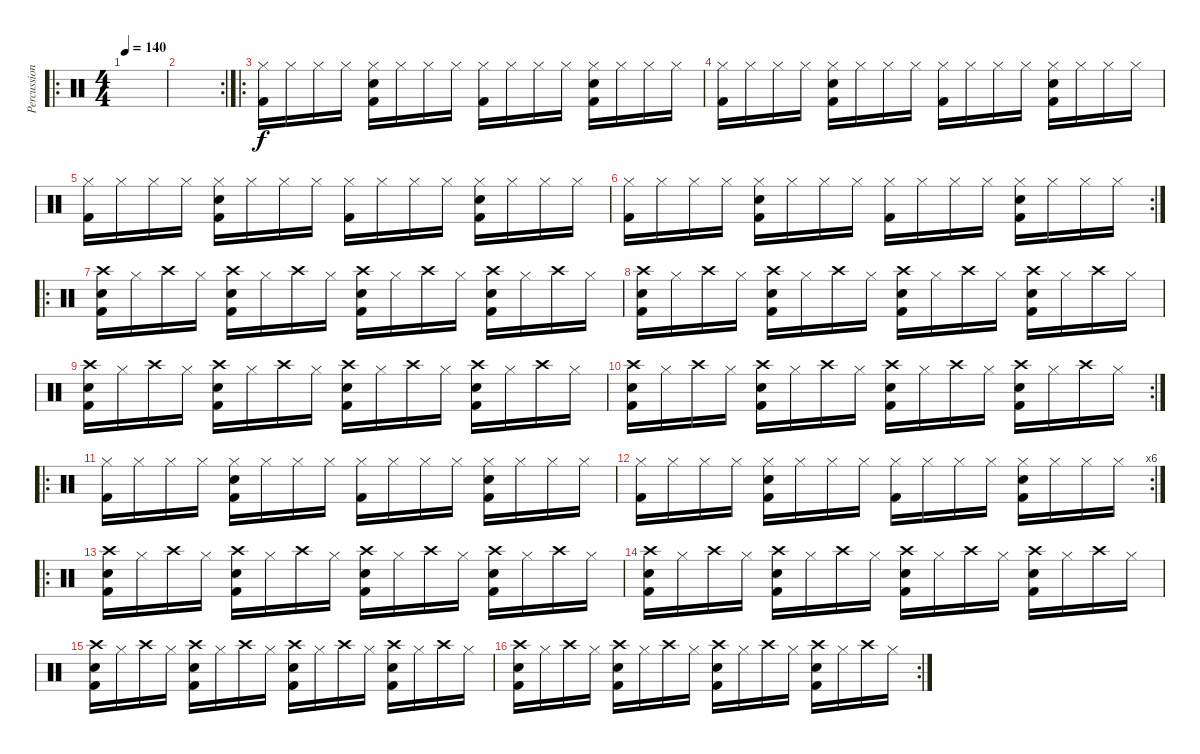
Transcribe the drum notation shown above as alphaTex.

\track ("Percussion" "Percussion") {instrument percussion}
\staff {score}
\articulation defaults
\ro
\ts (4 4)
\tempo 140
\clef neutral
\ks c
|
\rc 2
|
\ro
("Hi-Hat (closed)" "Kick (hit) 2").16 "Hi-Hat (closed)".16 "Hi-Hat (closed)".16 "Hi-Hat (closed)".16 ("Hi-Hat (closed)" "Kick (hit) 2" "Electric Snare (hit)").16 "Hi-Hat (closed)".16 "Hi-Hat (closed)".16 "Hi-Hat (closed)".16 ("Hi-Hat (closed)" "Kick (hit) 2").16 "Hi-Hat (closed)".16 "Hi-Hat (closed)".16 "Hi-Hat (closed)".16 ("Hi-Hat (closed)" "Kick (hit) 2" "Electric Snare (hit)").16 "Hi-Hat (closed)".16 "Hi-Hat (closed)".16 "Hi-Hat (closed)".16 |
("Hi-Hat (closed)" "Kick (hit) 2").16 "Hi-Hat (closed)".16 "Hi-Hat (closed)".16 "Hi-Hat (closed)".16 ("Hi-Hat (closed)" "Kick (hit) 2" "Electric Snare (hit)").16 "Hi-Hat (closed)".16 "Hi-Hat (closed)".16 "Hi-Hat (closed)".16 ("Hi-Hat (closed)" "Kick (hit) 2").16 "Hi-Hat (closed)".16 "Hi-Hat (closed)".16 "Hi-Hat (closed)".16 ("Hi-Hat (closed)" "Kick (hit) 2" "Electric Snare (hit)").16 "Hi-Hat (closed)".16 "Hi-Hat (closed)".16 "Hi-Hat (closed)".16 |
("Hi-Hat (closed)" "Kick (hit) 2").16 "Hi-Hat (closed)".16 "Hi-Hat (closed)".16 "Hi-Hat (closed)".16 ("Hi-Hat (closed)" "Kick (hit) 2" "Electric Snare (hit)").16 "Hi-Hat (closed)".16 "Hi-Hat (closed)".16 "Hi-Hat (closed)".16 ("Hi-Hat (closed)" "Kick (hit) 2").16 "Hi-Hat (closed)".16 "Hi-Hat (closed)".16 "Hi-Hat (closed)".16 ("Hi-Hat (closed)" "Kick (hit) 2" "Electric Snare (hit)").16 "Hi-Hat (closed)".16 "Hi-Hat (closed)".16 "Hi-Hat (closed)".16 |
\rc 2
("Hi-Hat (closed)" "Kick (hit) 2").16 "Hi-Hat (closed)".16 "Hi-Hat (closed)".16 "Hi-Hat (closed)".16 ("Hi-Hat (closed)" "Kick (hit) 2" "Electric Snare (hit)").16 "Hi-Hat (closed)".16 "Hi-Hat (closed)".16 "Hi-Hat (closed)".16 ("Hi-Hat (closed)" "Kick (hit) 2").16 "Hi-Hat (closed)".16 "Hi-Hat (closed)".16 "Hi-Hat (closed)".16 ("Hi-Hat (closed)" "Kick (hit) 2" "Electric Snare (hit)").16 "Hi-Hat (closed)".16 "Hi-Hat (closed)".16 "Hi-Hat (closed)".16 |
\ro
("Crash high (hit)" "Kick (hit) 2" "Electric Snare (hit)").16 "Hi-Hat (closed)"{x}.16 "Crash high (hit)".16 "Hi-Hat (closed)"{x}.16 ("Crash high (hit)" "Kick (hit) 2" "Electric Snare (hit)").16 "Hi-Hat (closed)"{x}.16 "Crash high (hit)".16 "Hi-Hat (closed)"{x}.16 ("Crash high (hit)" "Kick (hit) 2" "Electric Snare (hit)").16 "Hi-Hat (closed)"{x}.16 "Crash high (hit)".16 "Hi-Hat (closed)"{x}.16 ("Crash high (hit)" "Kick (hit) 2" "Electric Snare (hit)").16 "Hi-Hat (closed)"{x}.16 "Crash high (hit)".16 "Hi-Hat (closed)"{x}.16 |
("Crash high (hit)" "Kick (hit) 2" "Electric Snare (hit)").16 "Hi-Hat (closed)"{x}.16 "Crash high (hit)".16 "Hi-Hat (closed)"{x}.16 ("Crash high (hit)" "Kick (hit) 2" "Electric Snare (hit)").16 "Hi-Hat (closed)"{x}.16 "Crash high (hit)".16 "Hi-Hat (closed)"{x}.16 ("Crash high (hit)" "Kick (hit) 2" "Electric Snare (hit)").16 "Hi-Hat (closed)"{x}.16 "Crash high (hit)".16 "Hi-Hat (closed)"{x}.16 ("Crash high (hit)" "Kick (hit) 2" "Electric Snare (hit)").16 "Hi-Hat (closed)"{x}.16 "Crash high (hit)".16 "Hi-Hat (closed)"{x}.16 |
("Crash high (hit)" "Kick (hit) 2" "Electric Snare (hit)").16 "Hi-Hat (closed)"{x}.16 "Crash high (hit)".16 "Hi-Hat (closed)"{x}.16 ("Crash high (hit)" "Kick (hit) 2" "Electric Snare (hit)").16 "Hi-Hat (closed)"{x}.16 "Crash high (hit)".16 "Hi-Hat (closed)"{x}.16 ("Crash high (hit)" "Kick (hit) 2" "Electric Snare (hit)").16 "Hi-Hat (closed)"{x}.16 "Crash high (hit)".16 "Hi-Hat (closed)"{x}.16 ("Crash high (hit)" "Kick (hit) 2" "Electric Snare (hit)").16 "Hi-Hat (closed)"{x}.16 "Crash high (hit)".16 "Hi-Hat (closed)"{x}.16 |
\rc 2
("Crash high (hit)" "Kick (hit) 2" "Electric Snare (hit)").16 "Hi-Hat (closed)"{x}.16 "Crash high (hit)".16 "Hi-Hat (closed)"{x}.16 ("Crash high (hit)" "Kick (hit) 2" "Electric Snare (hit)").16 "Hi-Hat (closed)"{x}.16 "Crash high (hit)".16 "Hi-Hat (closed)"{x}.16 ("Crash high (hit)" "Kick (hit) 2" "Electric Snare (hit)").16 "Hi-Hat (closed)"{x}.16 "Crash high (hit)".16 "Hi-Hat (closed)"{x}.16 ("Crash high (hit)" "Kick (hit) 2" "Electric Snare (hit)").16 "Hi-Hat (closed)"{x}.16 "Crash high (hit)".16 "Hi-Hat (closed)"{x}.16 |
\ro
("Hi-Hat (closed)" "Kick (hit) 2").16 "Hi-Hat (closed)".16 "Hi-Hat (closed)".16 "Hi-Hat (closed)".16 ("Hi-Hat (closed)" "Kick (hit) 2" "Electric Snare (hit)").16 "Hi-Hat (closed)".16 "Hi-Hat (closed)".16 "Hi-Hat (closed)".16 ("Hi-Hat (closed)" "Kick (hit) 2").16 "Hi-Hat (closed)".16 "Hi-Hat (closed)".16 "Hi-Hat (closed)".16 ("Hi-Hat (closed)" "Kick (hit) 2" "Electric Snare (hit)").16 "Hi-Hat (closed)".16 "Hi-Hat (closed)".16 "Hi-Hat (closed)".16 |
\rc 6
("Hi-Hat (closed)" "Kick (hit) 2").16 "Hi-Hat (closed)".16 "Hi-Hat (closed)".16 "Hi-Hat (closed)".16 ("Hi-Hat (closed)" "Kick (hit) 2" "Electric Snare (hit)").16 "Hi-Hat (closed)".16 "Hi-Hat (closed)".16 "Hi-Hat (closed)".16 ("Hi-Hat (closed)" "Kick (hit) 2").16 "Hi-Hat (closed)".16 "Hi-Hat (closed)".16 "Hi-Hat (closed)".16 ("Hi-Hat (closed)" "Kick (hit) 2" "Electric Snare (hit)").16 "Hi-Hat (closed)".16 "Hi-Hat (closed)".16 "Hi-Hat (closed)".16 |
\ro
("Crash high (hit)" "Kick (hit) 2" "Electric Snare (hit)").16 "Hi-Hat (closed)"{x}.16 "Crash high (hit)".16 "Hi-Hat (closed)"{x}.16 ("Crash high (hit)" "Kick (hit) 2" "Electric Snare (hit)").16 "Hi-Hat (closed)"{x}.16 "Crash high (hit)".16 "Hi-Hat (closed)"{x}.16 ("Crash high (hit)" "Kick (hit) 2" "Electric Snare (hit)").16 "Hi-Hat (closed)"{x}.16 "Crash high (hit)".16 "Hi-Hat (closed)"{x}.16 ("Crash high (hit)" "Kick (hit) 2" "Electric Snare (hit)").16 "Hi-Hat (closed)"{x}.16 "Crash high (hit)".16 "Hi-Hat (closed)"{x}.16 |
("Crash high (hit)" "Kick (hit) 2" "Electric Snare (hit)").16 "Hi-Hat (closed)"{x}.16 "Crash high (hit)".16 "Hi-Hat (closed)"{x}.16 ("Crash high (hit)" "Kick (hit) 2" "Electric Snare (hit)").16 "Hi-Hat (closed)"{x}.16 "Crash high (hit)".16 "Hi-Hat (closed)"{x}.16 ("Crash high (hit)" "Kick (hit) 2" "Electric Snare (hit)").16 "Hi-Hat (closed)"{x}.16 "Crash high (hit)".16 "Hi-Hat (closed)"{x}.16 ("Crash high (hit)" "Kick (hit) 2" "Electric Snare (hit)").16 "Hi-Hat (closed)"{x}.16 "Crash high (hit)".16 "Hi-Hat (closed)"{x}.16 |
("Crash high (hit)" "Kick (hit) 2" "Electric Snare (hit)").16 "Hi-Hat (closed)"{x}.16 "Crash high (hit)".16 "Hi-Hat (closed)"{x}.16 ("Crash high (hit)" "Kick (hit) 2" "Electric Snare (hit)").16 "Hi-Hat (closed)"{x}.16 "Crash high (hit)".16 "Hi-Hat (closed)"{x}.16 ("Crash high (hit)" "Kick (hit) 2" "Electric Snare (hit)").16 "Hi-Hat (closed)"{x}.16 "Crash high (hit)".16 "Hi-Hat (closed)"{x}.16 ("Crash high (hit)" "Kick (hit) 2" "Electric Snare (hit)").16 "Hi-Hat (closed)"{x}.16 "Crash high (hit)".16 "Hi-Hat (closed)"{x}.16 |
\rc 2
("Crash high (hit)" "Kick (hit) 2" "Electric Snare (hit)").16 "Hi-Hat (closed)"{x}.16 "Crash high (hit)".16 "Hi-Hat (closed)"{x}.16 ("Crash high (hit)" "Kick (hit) 2" "Electric Snare (hit)").16 "Hi-Hat (closed)"{x}.16 "Crash high (hit)".16 "Hi-Hat (closed)"{x}.16 ("Crash high (hit)" "Kick (hit) 2" "Electric Snare (hit)").16 "Hi-Hat (closed)"{x}.16 "Crash high (hit)".16 "Hi-Hat (closed)"{x}.16 ("Crash high (hit)" "Kick (hit) 2" "Electric Snare (hit)").16 "Hi-Hat (closed)"{x}.16 "Crash high (hit)".16 "Hi-Hat (closed)"{x}.16
